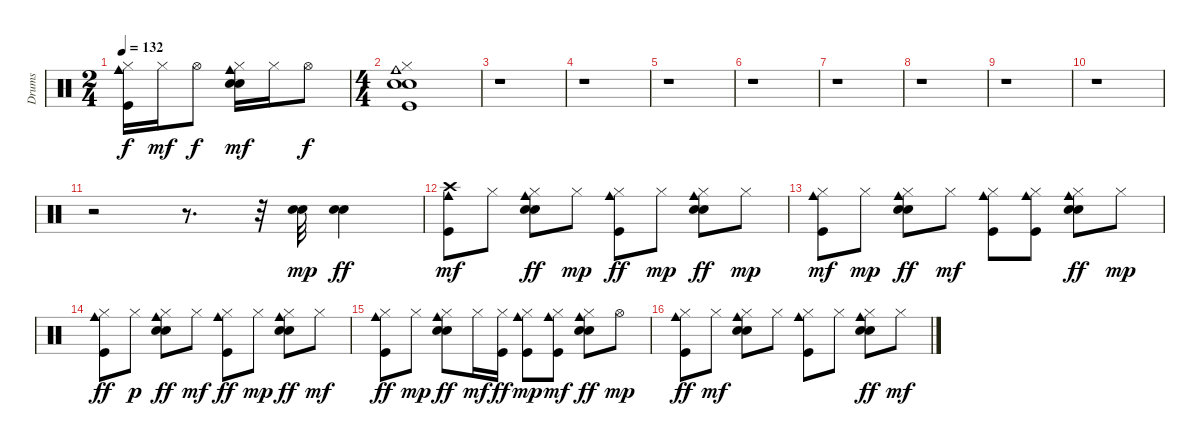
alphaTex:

\track ("Drums" "Drums") {instrument percussion}
\staff {score}
\articulation defaults
\ts (2 4)
\tempo 132
\clef neutral
\ks c
("Hi-Hat (closed)" "Kick (hit)" "Cowbell medium (hit)").16{dy f} "Hi-Hat (closed)".16{dy mf} "Hi-Hat (open)".8{dy f} ("Hi-Hat (closed)" "Electric Snare (hit)" "Snare (hit) 2" "Cowbell medium (hit)").16{dy mf} "Hi-Hat (closed)".16 "Hi-Hat (open)".8{dy f} |
\ts (4 4)
("Hi-Hat (closed)" "Kick (hit)" "Electric Snare (hit)" "Snare (hit) 2" "Cowbell medium (hit)").1 |
r.1 |
r.1 |
r.1 |
r.1 |
r.1 |
r.1 |
r.1 |
r.1 |
r.2 r.8{d} r.32 ("Electric Snare (hit)" "Snare (hit) 2").32{dy mp} ("Electric Snare (hit)" "Snare (hit) 2").4{dy ff} |
("Kick (hit)" "Cowbell medium (hit)" "Crash high (hit)").8{dy mf} "Hi-Hat (closed)".8 ("Hi-Hat (closed)" "Electric Snare (hit)" "Snare (hit) 2" "Cowbell medium (hit)").8{dy ff} "Hi-Hat (closed)".8{dy mp} ("Hi-Hat (closed)" "Kick (hit)" "Cowbell medium (hit)").8{dy ff} "Hi-Hat (closed)".8{dy mp} ("Hi-Hat (closed)" "Electric Snare (hit)" "Snare (hit) 2" "Cowbell medium (hit)").8{dy ff} "Hi-Hat (closed)".8{dy mp} |
("Hi-Hat (closed)" "Kick (hit)" "Cowbell medium (hit)").8{dy mf} "Hi-Hat (closed)".8{dy mp} ("Hi-Hat (closed)" "Electric Snare (hit)" "Snare (hit) 2" "Cowbell medium (hit)").8{dy ff} "Hi-Hat (closed)".8{dy mf} ("Hi-Hat (closed)" "Kick (hit)" "Cowbell medium (hit)").8 ("Hi-Hat (closed)" "Kick (hit)" "Cowbell medium (hit)").8 ("Hi-Hat (closed)" "Electric Snare (hit)" "Snare (hit) 2" "Cowbell medium (hit)").8{dy ff} "Hi-Hat (closed)".8{dy mp} |
("Hi-Hat (closed)" "Kick (hit)" "Cowbell medium (hit)").8{dy ff} "Hi-Hat (closed)".8{dy p} ("Hi-Hat (closed)" "Electric Snare (hit)" "Snare (hit) 2" "Cowbell medium (hit)").8{dy ff} "Hi-Hat (closed)".8{dy mf} ("Hi-Hat (closed)" "Kick (hit)" "Cowbell medium (hit)").8{dy ff} "Hi-Hat (closed)".8{dy mp} ("Hi-Hat (closed)" "Electric Snare (hit)" "Snare (hit) 2" "Cowbell medium (hit)").8{dy ff} "Hi-Hat (closed)".8{dy mf} |
("Hi-Hat (closed)" "Kick (hit)" "Cowbell medium (hit)").8{dy ff} "Hi-Hat (closed)".8{dy mp} ("Hi-Hat (closed)" "Electric Snare (hit)" "Snare (hit) 2" "Cowbell medium (hit)").8{dy ff} "Hi-Hat (closed)".16{dy mf} ("Hi-Hat (closed)" "Kick (hit)").16{dy ff} ("Hi-Hat (closed)" "Kick (hit)" "Cowbell medium (hit)").8{dy mp} ("Hi-Hat (closed)" "Kick (hit)" "Cowbell medium (hit)").8{dy mf} ("Hi-Hat (closed)" "Electric Snare (hit)" "Snare (hit) 2" "Cowbell medium (hit)").8{dy ff} "Hi-Hat (open)".8{dy mp} |
("Hi-Hat (closed)" "Kick (hit)" "Cowbell medium (hit)").8{dy ff} "Hi-Hat (closed)".8{dy mf} ("Hi-Hat (closed)" "Electric Snare (hit)" "Snare (hit) 2" "Cowbell medium (hit)").8 "Hi-Hat (closed)".8 ("Hi-Hat (closed)" "Kick (hit)" "Cowbell medium (hit)").8 "Hi-Hat (closed)".8 ("Hi-Hat (closed)" "Electric Snare (hit)" "Snare (hit) 2" "Cowbell medium (hit)").8{dy ff} "Hi-Hat (closed)".8{dy mf}
